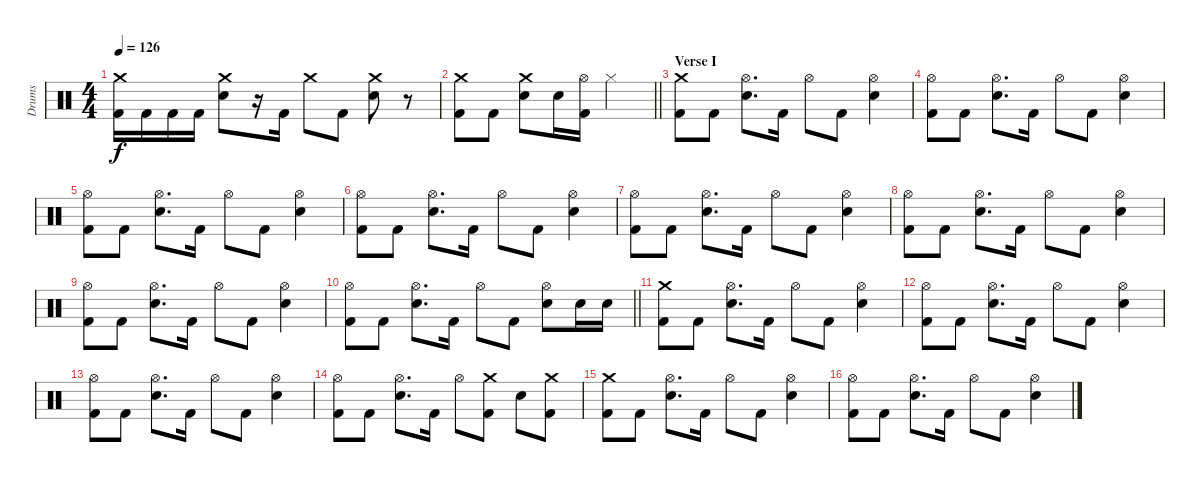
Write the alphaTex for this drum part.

\track ("Drums" "Drums") {instrument percussion}
\staff {score}
\articulation defaults
\ts (4 4)
\tempo 126
\clef neutral
\ks c
("Crash medium (hit)" "Kick (hit) 2").16{dy f} "Kick (hit) 2".16 "Kick (hit) 2".16 "Kick (hit) 2".16 ("Crash medium (hit)" "Electric Snare (hit)").8 r.16 "Kick (hit) 2".16 "Crash medium (hit)".8 "Kick (hit) 2".8 ("Crash medium (hit)" "Electric Snare (hit)").8 r.8 |
\barLineRight lightlight
("Crash medium (hit)" "Kick (hit) 2").8 "Kick (hit) 2".8 ("Crash medium (hit)" "Electric Snare (hit)").8 "Electric Snare (hit)".16 ("Hi-Hat (open)" "Kick (hit) 2").16 "Hi-Hat (closed)".2 |
\section ("" "Verse I")
("Crash medium (hit)" "Kick (hit) 2").8 "Kick (hit) 2".8 ("Hi-Hat (open)" "Electric Snare (hit)").8{d} "Kick (hit) 2".16 "Hi-Hat (open)".8 "Kick (hit) 2".8 ("Hi-Hat (open)" "Electric Snare (hit)").4 |
("Hi-Hat (open)" "Kick (hit) 2").8 "Kick (hit) 2".8 ("Hi-Hat (open)" "Electric Snare (hit)").8{d} "Kick (hit) 2".16 "Hi-Hat (open)".8 "Kick (hit) 2".8 ("Hi-Hat (open)" "Electric Snare (hit)").4 |
("Hi-Hat (open)" "Kick (hit) 2").8 "Kick (hit) 2".8 ("Hi-Hat (open)" "Electric Snare (hit)").8{d} "Kick (hit) 2".16 "Hi-Hat (open)".8 "Kick (hit) 2".8 ("Hi-Hat (open)" "Electric Snare (hit)").4 |
("Hi-Hat (open)" "Kick (hit) 2").8 "Kick (hit) 2".8 ("Hi-Hat (open)" "Electric Snare (hit)").8{d} "Kick (hit) 2".16 "Hi-Hat (open)".8 "Kick (hit) 2".8 ("Hi-Hat (open)" "Electric Snare (hit)").4 |
("Hi-Hat (open)" "Kick (hit) 2").8 "Kick (hit) 2".8 ("Hi-Hat (open)" "Electric Snare (hit)").8{d} "Kick (hit) 2".16 "Hi-Hat (open)".8 "Kick (hit) 2".8 ("Hi-Hat (open)" "Electric Snare (hit)").4 |
("Hi-Hat (open)" "Kick (hit) 2").8 "Kick (hit) 2".8 ("Hi-Hat (open)" "Electric Snare (hit)").8{d} "Kick (hit) 2".16 "Hi-Hat (open)".8 "Kick (hit) 2".8 ("Hi-Hat (open)" "Electric Snare (hit)").4 |
("Hi-Hat (open)" "Kick (hit) 2").8 "Kick (hit) 2".8 ("Hi-Hat (open)" "Electric Snare (hit)").8{d} "Kick (hit) 2".16 "Hi-Hat (open)".8 "Kick (hit) 2".8 ("Hi-Hat (open)" "Electric Snare (hit)").4 |
\barLineRight lightlight
("Hi-Hat (open)" "Kick (hit) 2").8 "Kick (hit) 2".8 ("Hi-Hat (open)" "Electric Snare (hit)").8{d} "Kick (hit) 2".16 "Hi-Hat (open)".8 "Kick (hit) 2".8 ("Hi-Hat (open)" "Electric Snare (hit)").8 "Electric Snare (hit)".16 "Electric Snare (hit)".16 |
("Crash medium (hit)" "Kick (hit) 2").8 "Kick (hit) 2".8 ("Hi-Hat (open)" "Electric Snare (hit)").8{d} "Kick (hit) 2".16 "Hi-Hat (open)".8 "Kick (hit) 2".8 ("Hi-Hat (open)" "Electric Snare (hit)").4 |
("Hi-Hat (open)" "Kick (hit) 2").8 "Kick (hit) 2".8 ("Hi-Hat (open)" "Electric Snare (hit)").8{d} "Kick (hit) 2".16 "Hi-Hat (open)".8 "Kick (hit) 2".8 ("Hi-Hat (open)" "Electric Snare (hit)").4 |
("Hi-Hat (open)" "Kick (hit) 2").8 "Kick (hit) 2".8 ("Hi-Hat (open)" "Electric Snare (hit)").8{d} "Kick (hit) 2".16 "Hi-Hat (open)".8 "Kick (hit) 2".8 ("Hi-Hat (open)" "Electric Snare (hit)").4 |
("Hi-Hat (open)" "Kick (hit) 2").8 "Kick (hit) 2".8 ("Hi-Hat (open)" "Electric Snare (hit)").8{d} "Kick (hit) 2".16 "Hi-Hat (open)".8 ("Crash medium (hit)" "Kick (hit) 2").8 "Electric Snare (hit)".8 ("Crash medium (hit)" "Kick (hit) 2").8 |
("Crash medium (hit)" "Kick (hit) 2").8 "Kick (hit) 2".8 ("Hi-Hat (open)" "Electric Snare (hit)").8{d} "Kick (hit) 2".16 "Hi-Hat (open)".8 "Kick (hit) 2".8 ("Hi-Hat (open)" "Electric Snare (hit)").4 |
("Hi-Hat (open)" "Kick (hit) 2").8 "Kick (hit) 2".8 ("Hi-Hat (open)" "Electric Snare (hit)").8{d} "Kick (hit) 2".16 "Hi-Hat (open)".8 "Kick (hit) 2".8 ("Hi-Hat (open)" "Electric Snare (hit)").4
